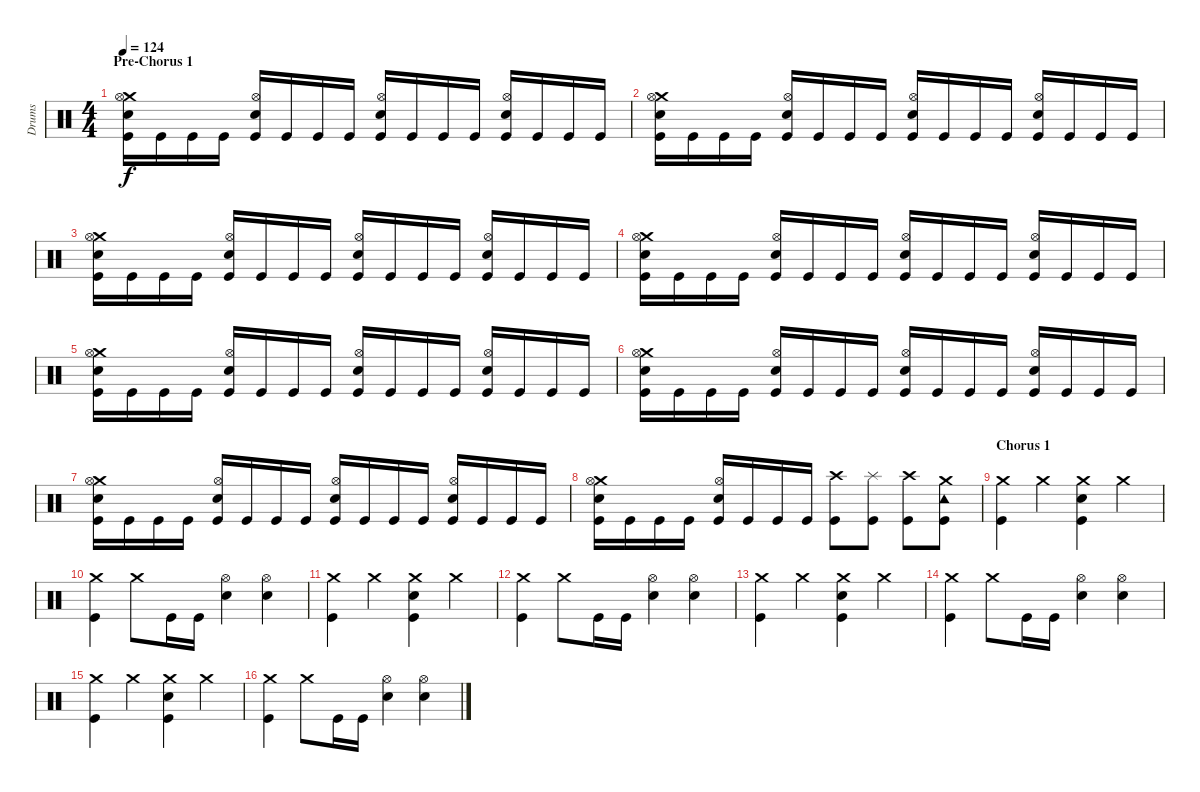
\track ("Drums" "Drums") {instrument percussion}
\staff {score}
\articulation defaults
\ts (4 4)
\section ("" "Pre-Chorus 1")
\tempo 124
\clef neutral
\ks c
("Crash medium (hit)" "Electric Snare (hit)" "Hi-Hat (open)" "Kick (hit)").16{dy f} "Kick (hit)".16 "Kick (hit)".16 "Kick (hit)".16 ("Electric Snare (hit)" "Hi-Hat (open)" "Kick (hit)").16 "Kick (hit)".16 "Kick (hit)".16 "Kick (hit)".16 ("Electric Snare (hit)" "Hi-Hat (open)" "Kick (hit)").16 "Kick (hit)".16 "Kick (hit)".16 "Kick (hit)".16 ("Hi-Hat (open)" "Electric Snare (hit)" "Kick (hit)").16 "Kick (hit)".16 "Kick (hit)".16 "Kick (hit)".16 |
("Crash medium (hit)" "Electric Snare (hit)" "Hi-Hat (open)" "Kick (hit)").16 "Kick (hit)".16 "Kick (hit)".16 "Kick (hit)".16 ("Electric Snare (hit)" "Hi-Hat (open)" "Kick (hit)").16 "Kick (hit)".16 "Kick (hit)".16 "Kick (hit)".16 ("Electric Snare (hit)" "Hi-Hat (open)" "Kick (hit)").16 "Kick (hit)".16 "Kick (hit)".16 "Kick (hit)".16 ("Hi-Hat (open)" "Electric Snare (hit)" "Kick (hit)").16 "Kick (hit)".16 "Kick (hit)".16 "Kick (hit)".16 |
("Crash medium (hit)" "Electric Snare (hit)" "Hi-Hat (open)" "Kick (hit)").16 "Kick (hit)".16 "Kick (hit)".16 "Kick (hit)".16 ("Electric Snare (hit)" "Hi-Hat (open)" "Kick (hit)").16 "Kick (hit)".16 "Kick (hit)".16 "Kick (hit)".16 ("Electric Snare (hit)" "Hi-Hat (open)" "Kick (hit)").16 "Kick (hit)".16 "Kick (hit)".16 "Kick (hit)".16 ("Hi-Hat (open)" "Electric Snare (hit)" "Kick (hit)").16 "Kick (hit)".16 "Kick (hit)".16 "Kick (hit)".16 |
("Crash medium (hit)" "Electric Snare (hit)" "Hi-Hat (open)" "Kick (hit)").16 "Kick (hit)".16 "Kick (hit)".16 "Kick (hit)".16 ("Electric Snare (hit)" "Hi-Hat (open)" "Kick (hit)").16 "Kick (hit)".16 "Kick (hit)".16 "Kick (hit)".16 ("Electric Snare (hit)" "Hi-Hat (open)" "Kick (hit)").16 "Kick (hit)".16 "Kick (hit)".16 "Kick (hit)".16 ("Hi-Hat (open)" "Electric Snare (hit)" "Kick (hit)").16 "Kick (hit)".16 "Kick (hit)".16 "Kick (hit)".16 |
("Crash medium (hit)" "Electric Snare (hit)" "Hi-Hat (open)" "Kick (hit)").16 "Kick (hit)".16 "Kick (hit)".16 "Kick (hit)".16 ("Electric Snare (hit)" "Hi-Hat (open)" "Kick (hit)").16 "Kick (hit)".16 "Kick (hit)".16 "Kick (hit)".16 ("Electric Snare (hit)" "Hi-Hat (open)" "Kick (hit)").16 "Kick (hit)".16 "Kick (hit)".16 "Kick (hit)".16 ("Hi-Hat (open)" "Electric Snare (hit)" "Kick (hit)").16 "Kick (hit)".16 "Kick (hit)".16 "Kick (hit)".16 |
("Crash medium (hit)" "Electric Snare (hit)" "Hi-Hat (open)" "Kick (hit)").16 "Kick (hit)".16 "Kick (hit)".16 "Kick (hit)".16 ("Electric Snare (hit)" "Hi-Hat (open)" "Kick (hit)").16 "Kick (hit)".16 "Kick (hit)".16 "Kick (hit)".16 ("Electric Snare (hit)" "Hi-Hat (open)" "Kick (hit)").16 "Kick (hit)".16 "Kick (hit)".16 "Kick (hit)".16 ("Hi-Hat (open)" "Electric Snare (hit)" "Kick (hit)").16 "Kick (hit)".16 "Kick (hit)".16 "Kick (hit)".16 |
("Crash medium (hit)" "Electric Snare (hit)" "Hi-Hat (open)" "Kick (hit)").16 "Kick (hit)".16 "Kick (hit)".16 "Kick (hit)".16 ("Electric Snare (hit)" "Hi-Hat (open)" "Kick (hit)").16 "Kick (hit)".16 "Kick (hit)".16 "Kick (hit)".16 ("Electric Snare (hit)" "Hi-Hat (open)" "Kick (hit)").16 "Kick (hit)".16 "Kick (hit)".16 "Kick (hit)".16 ("Hi-Hat (open)" "Electric Snare (hit)" "Kick (hit)").16 "Kick (hit)".16 "Kick (hit)".16 "Kick (hit)".16 |
("Crash medium (hit)" "Electric Snare (hit)" "Hi-Hat (open)" "Kick (hit)").16 "Kick (hit)".16 "Kick (hit)".16 "Kick (hit)".16 ("Electric Snare (hit)" "Hi-Hat (open)" "Kick (hit)").16 "Kick (hit)".16 "Kick (hit)".16 "Kick (hit)".16 ("Crash high (hit)" "Kick (hit)").8 ("Splash (hit)" "Kick (hit)").8 ("Crash high (hit)" "Kick (hit)").8 ("Tambourine (hit)" "Crash medium (hit)" "Kick (hit)").8 |
\section ("" "Chorus 1")
("Crash medium (hit)" "Kick (hit)").4 "Crash medium (hit)".4 ("Kick (hit)" "Crash medium (hit)" "Electric Snare (hit)").4 "Crash medium (hit)".4 |
("Crash medium (hit)" "Kick (hit)").4 "Crash medium (hit)".8 "Kick (hit)".16 "Kick (hit)".16 ("Hi-Hat (open)" "Electric Snare (hit)").4 ("Hi-Hat (open)" "Electric Snare (hit)").4 |
("Crash medium (hit)" "Kick (hit)").4 "Crash medium (hit)".4 ("Kick (hit)" "Crash medium (hit)" "Electric Snare (hit)").4 "Crash medium (hit)".4 |
("Crash medium (hit)" "Kick (hit)").4 "Crash medium (hit)".8 "Kick (hit)".16 "Kick (hit)".16 ("Hi-Hat (open)" "Electric Snare (hit)").4 ("Hi-Hat (open)" "Electric Snare (hit)").4 |
("Crash medium (hit)" "Kick (hit)").4 "Crash medium (hit)".4 ("Kick (hit)" "Crash medium (hit)" "Electric Snare (hit)").4 "Crash medium (hit)".4 |
("Crash medium (hit)" "Kick (hit)").4 "Crash medium (hit)".8 "Kick (hit)".16 "Kick (hit)".16 ("Hi-Hat (open)" "Electric Snare (hit)").4 ("Hi-Hat (open)" "Electric Snare (hit)").4 |
("Crash medium (hit)" "Kick (hit)").4 "Crash medium (hit)".4 ("Kick (hit)" "Crash medium (hit)" "Electric Snare (hit)").4 "Crash medium (hit)".4 |
("Crash medium (hit)" "Kick (hit)").4 "Crash medium (hit)".8 "Kick (hit)".16 "Kick (hit)".16 ("Hi-Hat (open)" "Electric Snare (hit)").4 ("Hi-Hat (open)" "Electric Snare (hit)").4
